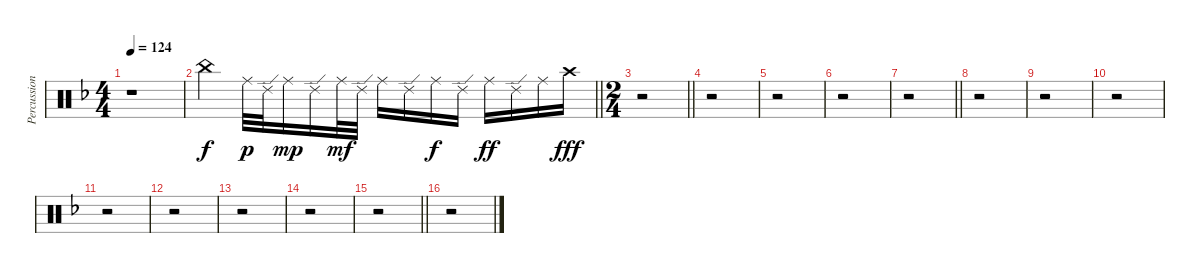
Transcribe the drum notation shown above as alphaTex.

\track ("Percussions" "Percussion") {instrument percussion}
\staff {score}
\articulation defaults
\ts (4 4)
\tempo 124
\clef neutral
\ks dminor
r.1{dy f} |
\barLineRight lightlight "China (hit)".4 "Ride (middle)".32{dy p} "Ride (edge) 2".32 "Ride (middle)".16{dy mp} "Ride (edge) 2".16 "Ride (middle)".32{dy mf} "Ride (edge) 2".32 "Ride (middle)".16 "Ride (edge) 2".16 "Ride (middle)".16{dy f} "Ride (edge) 2".16 "Ride (middle)".16{dy ff} "Ride (edge) 2".16 "Ride (middle)".16 "Crash high (hit)".16{dy fff}
|
\ts (2 4)
\barLineRight lightlight
r.2 |
r.2 |
r.2 |
r.2 |
\barLineRight lightlight
r.2 |
r.2 |
r.2 |
r.2 |
r.2 |
r.2 |
r.2 |
r.2 |
\barLineRight lightlight
r.2 |
r.2
